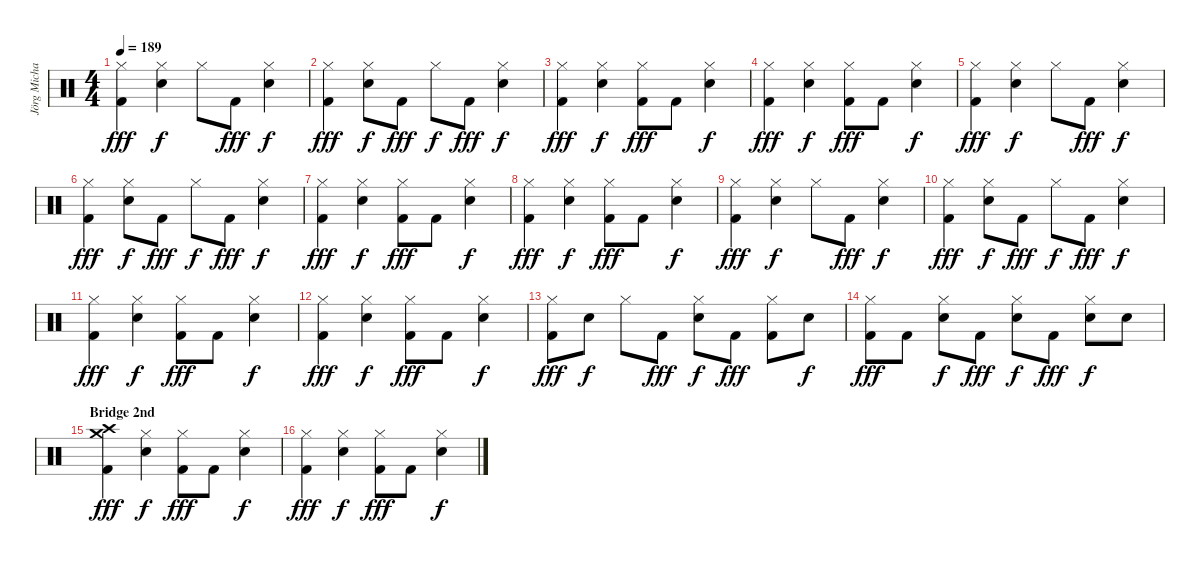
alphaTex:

\track ("Jörg Michael" "Jörg Micha") {instrument percussion}
\staff {score}
\articulation defaults
\ts (4 4)
\tempo 189
\clef neutral
\ks c
("Hi-Hat (closed)" "Kick (hit) 2").4{dy fff} ("Hi-Hat (closed)" "Electric Snare (hit)").4{dy f} "Hi-Hat (closed)".8 "Kick (hit) 2".8{dy fff} ("Hi-Hat (closed)" "Electric Snare (hit)").4{dy f} |
("Hi-Hat (closed)" "Kick (hit) 2").4{dy fff} ("Hi-Hat (closed)" "Electric Snare (hit)").8{dy f} "Kick (hit) 2".8{dy fff} "Hi-Hat (closed)".8{dy f} "Kick (hit) 2".8{dy fff} ("Hi-Hat (closed)" "Electric Snare (hit)").4{dy f} |
("Hi-Hat (closed)" "Kick (hit) 2").4{dy fff} ("Hi-Hat (closed)" "Electric Snare (hit)").4{dy f} ("Hi-Hat (closed)" "Kick (hit) 2").8{dy fff} "Kick (hit) 2".8 ("Hi-Hat (closed)" "Electric Snare (hit)").4{dy f} |
("Hi-Hat (closed)" "Kick (hit) 2").4{dy fff} ("Hi-Hat (closed)" "Electric Snare (hit)").4{dy f} ("Hi-Hat (closed)" "Kick (hit) 2").8{dy fff} "Kick (hit) 2".8 ("Hi-Hat (closed)" "Electric Snare (hit)").4{dy f} |
("Hi-Hat (closed)" "Kick (hit) 2").4{dy fff} ("Hi-Hat (closed)" "Electric Snare (hit)").4{dy f} "Hi-Hat (closed)".8 "Kick (hit) 2".8{dy fff} ("Hi-Hat (closed)" "Electric Snare (hit)").4{dy f} |
("Hi-Hat (closed)" "Kick (hit) 2").4{dy fff} ("Hi-Hat (closed)" "Electric Snare (hit)").8{dy f} "Kick (hit) 2".8{dy fff} "Hi-Hat (closed)".8{dy f} "Kick (hit) 2".8{dy fff} ("Hi-Hat (closed)" "Electric Snare (hit)").4{dy f} |
("Hi-Hat (closed)" "Kick (hit) 2").4{dy fff} ("Hi-Hat (closed)" "Electric Snare (hit)").4{dy f} ("Hi-Hat (closed)" "Kick (hit) 2").8{dy fff} "Kick (hit) 2".8 ("Hi-Hat (closed)" "Electric Snare (hit)").4{dy f} |
("Hi-Hat (closed)" "Kick (hit) 2").4{dy fff} ("Hi-Hat (closed)" "Electric Snare (hit)").4{dy f} ("Hi-Hat (closed)" "Kick (hit) 2").8{dy fff} "Kick (hit) 2".8 ("Hi-Hat (closed)" "Electric Snare (hit)").4{dy f} |
("Hi-Hat (closed)" "Kick (hit) 2").4{dy fff} ("Hi-Hat (closed)" "Electric Snare (hit)").4{dy f} "Hi-Hat (closed)".8 "Kick (hit) 2".8{dy fff} ("Hi-Hat (closed)" "Electric Snare (hit)").4{dy f} |
("Hi-Hat (closed)" "Kick (hit) 2").4{dy fff} ("Hi-Hat (closed)" "Electric Snare (hit)").8{dy f} "Kick (hit) 2".8{dy fff} "Hi-Hat (closed)".8{dy f} "Kick (hit) 2".8{dy fff} ("Hi-Hat (closed)" "Electric Snare (hit)").4{dy f} |
("Hi-Hat (closed)" "Kick (hit) 2").4{dy fff} ("Hi-Hat (closed)" "Electric Snare (hit)").4{dy f} ("Hi-Hat (closed)" "Kick (hit) 2").8{dy fff} "Kick (hit) 2".8 ("Hi-Hat (closed)" "Electric Snare (hit)").4{dy f} |
("Hi-Hat (closed)" "Kick (hit) 2").4{dy fff} ("Hi-Hat (closed)" "Electric Snare (hit)").4{dy f} ("Hi-Hat (closed)" "Kick (hit) 2").8{dy fff} "Kick (hit) 2".8 ("Hi-Hat (closed)" "Electric Snare (hit)").4{dy f} |
("Hi-Hat (closed)" "Kick (hit) 2").8{dy fff} "Electric Snare (hit)".8{dy f} "Hi-Hat (closed)".8 "Kick (hit) 2".8{dy fff} ("Hi-Hat (closed)" "Electric Snare (hit)").8{dy f} "Kick (hit) 2".8{dy fff} ("Hi-Hat (closed)" "Kick (hit) 2").8 "Electric Snare (hit)".8{dy f} |
("Hi-Hat (closed)" "Kick (hit) 2").8{dy fff} "Kick (hit) 2".8 ("Hi-Hat (closed)" "Electric Snare (hit)").8{dy f} "Kick (hit) 2".8{dy fff} ("Hi-Hat (closed)" "Electric Snare (hit)").8{dy f} "Kick (hit) 2".8{dy fff} ("Hi-Hat (closed)" "Electric Snare (hit)").8{dy f} "Electric Snare (hit)".8 |
\section ("" "Bridge 2nd")
("Crash medium (hit)" "Crash high (hit)" "Kick (hit) 2").4{dy fff} ("Hi-Hat (closed)" "Electric Snare (hit)").4{dy f} ("Hi-Hat (closed)" "Kick (hit) 2").8{dy fff} "Kick (hit) 2".8 ("Hi-Hat (closed)" "Electric Snare (hit)").4{dy f} |
("Hi-Hat (closed)" "Kick (hit) 2").4{dy fff} ("Hi-Hat (closed)" "Electric Snare (hit)").4{dy f} ("Hi-Hat (closed)" "Kick (hit) 2").8{dy fff} "Kick (hit) 2".8 ("Hi-Hat (closed)" "Electric Snare (hit)").4{dy f}
